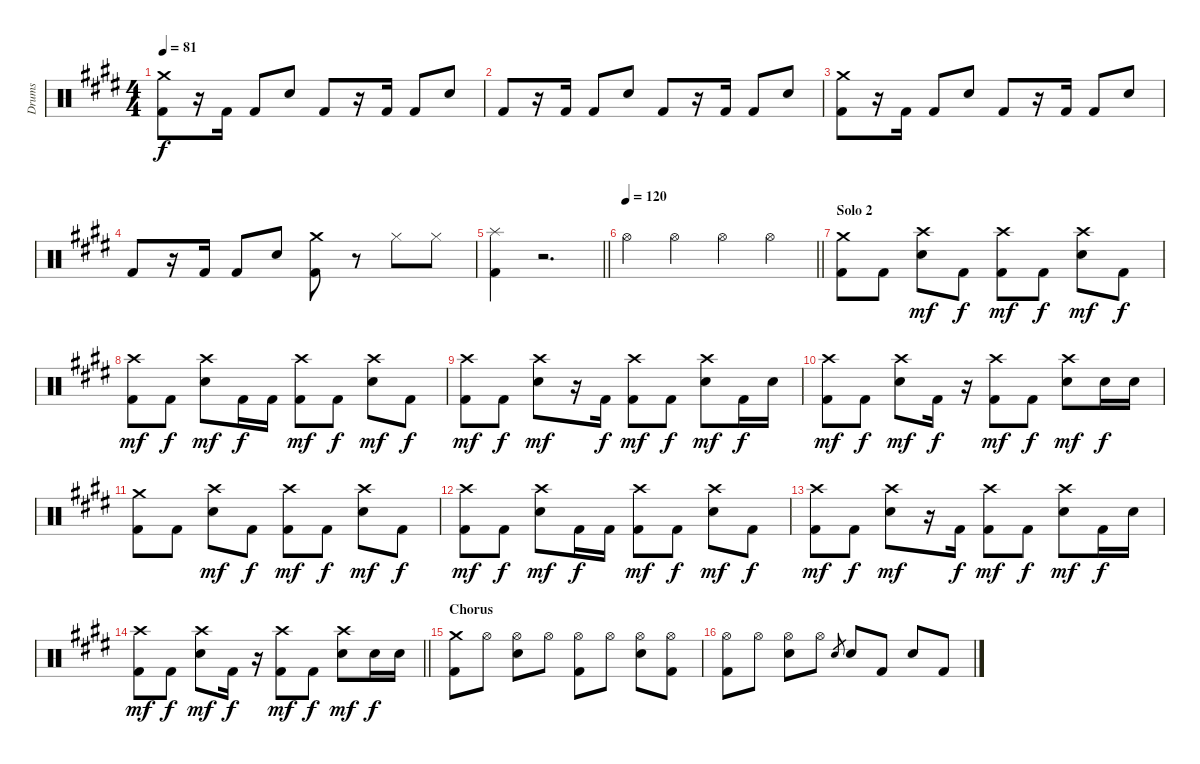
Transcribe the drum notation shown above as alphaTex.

\track ("Drums" "Drums") {instrument percussion}
\staff {score}
\articulation defaults
\ts (4 4)
\tempo 81
\clef neutral
\ks e
("Crash medium (hit)" "Kick (hit) 2").8{dy f} r.16 "Kick (hit) 2".16 "Kick (hit) 2".8 "Electric Snare (hit)".8 "Kick (hit) 2".8 r.16 "Kick (hit) 2".16 "Kick (hit) 2".8 "Electric Snare (hit)".8 |
"Kick (hit) 2".8 r.16 "Kick (hit) 2".16 "Kick (hit) 2".8 "Electric Snare (hit)".8 "Kick (hit) 2".8 r.16 "Kick (hit) 2".16 "Kick (hit) 2".8 "Electric Snare (hit)".8 |
("Crash medium (hit)" "Kick (hit) 2").8 r.16 "Kick (hit) 2".16 "Kick (hit) 2".8 "Electric Snare (hit)".8 "Kick (hit) 2".8 r.16 "Kick (hit) 2".16 "Kick (hit) 2".8 "Electric Snare (hit)".8 |
"Kick (hit) 2".8 r.16 "Kick (hit) 2".16 "Kick (hit) 2".8 "Electric Snare (hit)".8 ("Crash medium (hit)" "Kick (hit) 2").8 r.8 "Hi-Hat (closed)".8 "Hi-Hat (closed)".8 |
\barLineRight lightlight
("Splash (hit)" "Kick (hit) 2").4 r.2{d} |
\tempo 120
\barLineRight lightlight "Hi-Hat (open)".4 "Hi-Hat (open)".4 "Hi-Hat (open)".4 "Hi-Hat (open)".4
|
\section ("" "Solo 2")
("Crash medium (hit)" "Kick (hit) 2").8 "Kick (hit) 2".8 ("Crash high (hit)" "Electric Snare (hit)").8{dy mf} "Kick (hit) 2".8{dy f} ("Crash high (hit)" "Kick (hit) 2").8{dy mf} "Kick (hit) 2".8{dy f} ("Crash high (hit)" "Electric Snare (hit)").8{dy mf} "Kick (hit) 2".8{dy f} |
("Crash high (hit)" "Kick (hit) 2").8{dy mf} "Kick (hit) 2".8{dy f} ("Crash high (hit)" "Electric Snare (hit)").8{dy mf} "Kick (hit) 2".16{dy f} "Kick (hit) 2".16 ("Crash high (hit)" "Kick (hit) 2").8{dy mf} "Kick (hit) 2".8{dy f} ("Crash high (hit)" "Electric Snare (hit)").8{dy mf} "Kick (hit) 2".8{dy f} |
("Crash high (hit)" "Kick (hit) 2").8{dy mf} "Kick (hit) 2".8{dy f} ("Crash high (hit)" "Electric Snare (hit)").8{dy mf} r.16 "Kick (hit) 2".16{dy f} ("Crash high (hit)" "Kick (hit) 2").8{dy mf} "Kick (hit) 2".8{dy f} ("Crash high (hit)" "Electric Snare (hit)").8{dy mf} "Kick (hit) 2".16{dy f} "Electric Snare (hit)".16 |
("Crash high (hit)" "Kick (hit) 2").8{dy mf} "Kick (hit) 2".8{dy f} ("Crash high (hit)" "Electric Snare (hit)").8{dy mf} "Kick (hit) 2".16{dy f} r.16 ("Crash high (hit)" "Kick (hit) 2").8{dy mf} "Kick (hit) 2".8{dy f} ("Crash high (hit)" "Electric Snare (hit)").8{dy mf} "Electric Snare (hit)".16{dy f} "Electric Snare (hit)".16 |
("Crash medium (hit)" "Kick (hit) 2").8 "Kick (hit) 2".8 ("Crash high (hit)" "Electric Snare (hit)").8{dy mf} "Kick (hit) 2".8{dy f} ("Crash high (hit)" "Kick (hit) 2").8{dy mf} "Kick (hit) 2".8{dy f} ("Crash high (hit)" "Electric Snare (hit)").8{dy mf} "Kick (hit) 2".8{dy f} |
("Crash high (hit)" "Kick (hit) 2").8{dy mf} "Kick (hit) 2".8{dy f} ("Crash high (hit)" "Electric Snare (hit)").8{dy mf} "Kick (hit) 2".16{dy f} "Kick (hit) 2".16 ("Crash high (hit)" "Kick (hit) 2").8{dy mf} "Kick (hit) 2".8{dy f} ("Crash high (hit)" "Electric Snare (hit)").8{dy mf} "Kick (hit) 2".8{dy f} |
("Crash high (hit)" "Kick (hit) 2").8{dy mf} "Kick (hit) 2".8{dy f} ("Crash high (hit)" "Electric Snare (hit)").8{dy mf} r.16 "Kick (hit) 2".16{dy f} ("Crash high (hit)" "Kick (hit) 2").8{dy mf} "Kick (hit) 2".8{dy f} ("Crash high (hit)" "Electric Snare (hit)").8{dy mf} "Kick (hit) 2".16{dy f} "Electric Snare (hit)".16 |
\barLineRight lightlight
("Crash high (hit)" "Kick (hit) 2").8{dy mf} "Kick (hit) 2".8{dy f} ("Crash high (hit)" "Electric Snare (hit)").8{dy mf} "Kick (hit) 2".16{dy f} r.16 ("Crash high (hit)" "Kick (hit) 2").8{dy mf} "Kick (hit) 2".8{dy f} ("Crash high (hit)" "Electric Snare (hit)").8{dy mf} "Electric Snare (hit)".16{dy f} "Electric Snare (hit)".16 |
\section ("" "Chorus")
("Crash medium (hit)" "Kick (hit) 2").8 "Hi-Hat (open)".8 ("Hi-Hat (open)" "Electric Snare (hit)").8 "Hi-Hat (open)".8 ("Hi-Hat (open)" "Kick (hit) 2").8 "Hi-Hat (open)".8 ("Hi-Hat (open)" "Electric Snare (hit)").8 ("Hi-Hat (open)" "Kick (hit) 2").8 |
("Hi-Hat (open)" "Kick (hit) 2").8 "Hi-Hat (open)".8 ("Hi-Hat (open)" "Electric Snare (hit)").8 "Hi-Hat (open)".8 "Electric Snare (hit)".8{gr} "Electric Snare (hit)".8 "Kick (hit) 2".8 "Electric Snare (hit)".8 "Kick (hit) 2".8
